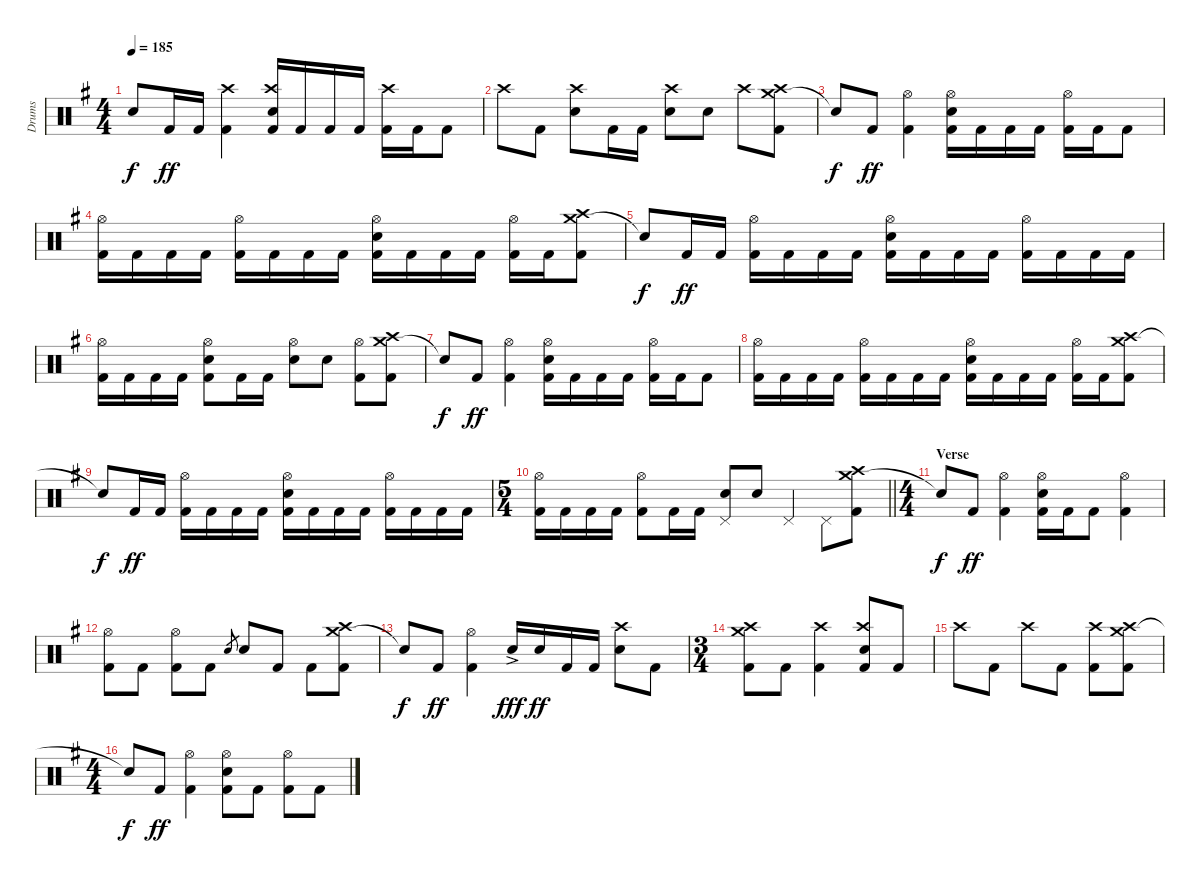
\track ("Drums" "Drums") {instrument percussion}
\staff {score}
\articulation defaults
\ts (4 4)
\tempo 185
\clef neutral
\ks g "Snare (hit)"{t}.8{dy f} "Kick (hit) 2".16{dy ff} "Kick (hit) 2".16
("Crash high (hit)" "Kick (hit) 2").4 ("Crash high (hit)" "Electric Snare (hit)" "Kick (hit) 2").16 "Kick (hit) 2".16 "Kick (hit) 2".16 "Kick (hit) 2".16 ("Crash high (hit)" "Kick (hit) 2").16 "Kick (hit) 2".16 "Kick (hit) 2".8 |
"Crash high (hit)".8 "Kick (hit) 2".8 ("Crash high (hit)" "Electric Snare (hit)").8 "Kick (hit) 2".16 "Kick (hit) 2".16 ("Crash high (hit)" "Electric Snare (hit)").8 "Electric Snare (hit)".8 "Crash high (hit)".8 ("Crash medium (hit)" "Crash high (hit)" "Kick (hit) 2").8 |
"Snare (hit)"{t}.8{dy f} "Kick (hit) 2".8{dy ff} ("Hi-Hat (open)" "Kick (hit) 2").4 ("Hi-Hat (open)" "Electric Snare (hit)" "Kick (hit) 2").16 "Kick (hit) 2".16 "Kick (hit) 2".16 "Kick (hit) 2".16 ("Hi-Hat (open)" "Kick (hit) 2").16 "Kick (hit) 2".16 "Kick (hit) 2".8 |
("Hi-Hat (open)" "Kick (hit) 2").16 "Kick (hit) 2".16 "Kick (hit) 2".16 "Kick (hit) 2".16 ("Hi-Hat (open)" "Kick (hit) 2").16 "Kick (hit) 2".16 "Kick (hit) 2".16 "Kick (hit) 2".16 ("Hi-Hat (open)" "Electric Snare (hit)" "Kick (hit) 2").16 "Kick (hit) 2".16 "Kick (hit) 2".16 "Kick (hit) 2".16 ("Hi-Hat (open)" "Kick (hit) 2").16 "Kick (hit) 2".16 ("Crash medium (hit)" "Crash high (hit)" "Kick (hit) 2").8 |
"Snare (hit)"{t}.8{dy f} "Kick (hit) 2".16{dy ff} "Kick (hit) 2".16 ("Hi-Hat (open)" "Kick (hit) 2").16 "Kick (hit) 2".16 "Kick (hit) 2".16 "Kick (hit) 2".16 ("Hi-Hat (open)" "Electric Snare (hit)" "Kick (hit) 2").16 "Kick (hit) 2".16 "Kick (hit) 2".16 "Kick (hit) 2".16 ("Hi-Hat (open)" "Kick (hit) 2").16 "Kick (hit) 2".16 "Kick (hit) 2".16 "Kick (hit) 2".16 |
("Hi-Hat (open)" "Kick (hit) 2").16 "Kick (hit) 2".16 "Kick (hit) 2".16 "Kick (hit) 2".16 ("Hi-Hat (open)" "Electric Snare (hit)" "Kick (hit) 2").8 "Kick (hit) 2".16 "Kick (hit) 2".16 ("Hi-Hat (open)" "Electric Snare (hit)").8 "Electric Snare (hit)".8 ("Hi-Hat (open)" "Kick (hit) 2").8 ("Crash medium (hit)" "Crash high (hit)" "Kick (hit) 2").8 |
"Snare (hit)"{t}.8{dy f} "Kick (hit) 2".8{dy ff} ("Hi-Hat (open)" "Kick (hit) 2").4 ("Hi-Hat (open)" "Electric Snare (hit)" "Kick (hit) 2").16 "Kick (hit) 2".16 "Kick (hit) 2".16 "Kick (hit) 2".16 ("Hi-Hat (open)" "Kick (hit) 2").16 "Kick (hit) 2".16 "Kick (hit) 2".8 |
("Hi-Hat (open)" "Kick (hit) 2").16 "Kick (hit) 2".16 "Kick (hit) 2".16 "Kick (hit) 2".16 ("Hi-Hat (open)" "Kick (hit) 2").16 "Kick (hit) 2".16 "Kick (hit) 2".16 "Kick (hit) 2".16 ("Hi-Hat (open)" "Electric Snare (hit)" "Kick (hit) 2").16 "Kick (hit) 2".16 "Kick (hit) 2".16 "Kick (hit) 2".16 ("Hi-Hat (open)" "Kick (hit) 2").16 "Kick (hit) 2".16 ("Crash medium (hit)" "Crash high (hit)" "Kick (hit) 2").8 |
"Snare (hit)"{t}.8{dy f} "Kick (hit) 2".16{dy ff} "Kick (hit) 2".16 ("Hi-Hat (open)" "Kick (hit) 2").16 "Kick (hit) 2".16 "Kick (hit) 2".16 "Kick (hit) 2".16 ("Hi-Hat (open)" "Electric Snare (hit)" "Kick (hit) 2").16 "Kick (hit) 2".16 "Kick (hit) 2".16 "Kick (hit) 2".16 ("Hi-Hat (open)" "Kick (hit) 2").16 "Kick (hit) 2".16 "Kick (hit) 2".16 "Kick (hit) 2".16 |
\ts (5 4)
\barLineRight lightlight
("Hi-Hat (open)" "Kick (hit) 2").16 "Kick (hit) 2".16 "Kick (hit) 2".16 "Kick (hit) 2".16 ("Hi-Hat (open)" "Kick (hit) 2").8 "Kick (hit) 2".16 "Kick (hit) 2".16 ("Pedal Hi-Hat (hit)" "Electric Snare (hit)").8 "Electric Snare (hit)".8 "Pedal Hi-Hat (hit)".4 "Pedal Hi-Hat (hit)".8 ("Crash medium (hit)" "Crash high (hit)" "Kick (hit) 2").8 |
\ts (4 4)
\section ("" "Verse")
"Snare (hit)"{t}.8{dy f} "Kick (hit) 2".8{dy ff} ("Hi-Hat (open)" "Kick (hit) 2").4 ("Hi-Hat (open)" "Electric Snare (hit)" "Kick (hit) 2").16 "Kick (hit) 2".16 "Kick (hit) 2".8 ("Hi-Hat (open)" "Kick (hit) 2").4 |
("Hi-Hat (open)" "Kick (hit) 2").8 "Kick (hit) 2".8 ("Hi-Hat (open)" "Kick (hit) 2").8 "Kick (hit) 2".8 "Electric Snare (hit)".8{gr} "Electric Snare (hit)".8 "Kick (hit) 2".8 "Kick (hit) 2".8 ("Crash medium (hit)" "Crash high (hit)" "Kick (hit) 2").8 |
"Snare (hit)"{t}.8{dy f} "Kick (hit) 2".8{dy ff} ("Hi-Hat (open)" "Kick (hit) 2").4 "Electric Snare (hit)"{ac}.16{dy fff} "Electric Snare (hit)".16{dy ff} "Kick (hit) 2".16 "Kick (hit) 2".16 ("Crash high (hit)" "Electric Snare (hit)").8 "Kick (hit) 2".8 |
\ts (3 4)
("Crash medium (hit)" "Crash high (hit)" "Kick (hit) 2").8 "Kick (hit) 2".8 ("Crash high (hit)" "Kick (hit) 2").4 ("Crash high (hit)" "Electric Snare (hit)" "Kick (hit) 2").8 "Kick (hit) 2".8 |
"Crash high (hit)".8 "Kick (hit) 2".8 "Crash high (hit)".8 "Kick (hit) 2".8 ("Crash high (hit)" "Kick (hit) 2").8 ("Crash medium (hit)" "Crash high (hit)" "Kick (hit) 2").8 |
\ts (4 4)
"Snare (hit)"{t}.8{dy f} "Kick (hit) 2".8{dy ff} ("Hi-Hat (open)" "Kick (hit) 2").4 ("Hi-Hat (open)" "Electric Snare (hit)" "Kick (hit) 2").8 "Kick (hit) 2".8 ("Hi-Hat (open)" "Kick (hit) 2").8 "Kick (hit) 2".8
